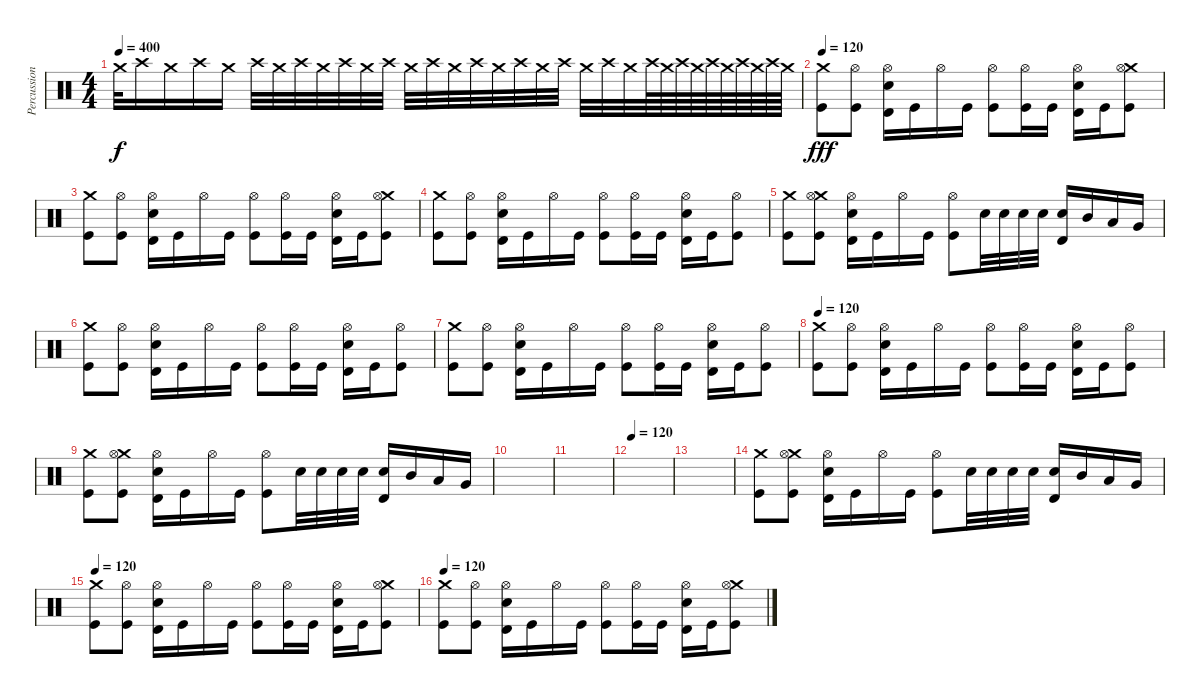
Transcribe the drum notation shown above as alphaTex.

\track ("Percussion" "Percussion") {instrument percussion}
\staff {score}
\articulation defaults
\ts (4 4)
\tempo 400
\clef neutral
\ks c "Crash medium (hit)".32{dy f volume 2} "Crash high (hit)".16{volume 15} "Crash medium (hit)".16 "Crash high (hit)".16 "Crash medium (hit)".16 "Crash high (hit)".32 "Crash medium (hit)".32 "Crash high (hit)".32 "Crash medium (hit)".32 "Crash high (hit)".32 "Crash medium (hit)".32 "Crash high (hit)".32 "Crash medium (hit)".32 "Crash high (hit)".32 "Crash medium (hit)".32 "Crash high (hit)".32 "Crash medium (hit)".32 "Crash high (hit)".32 "Crash medium (hit)".32 "Crash high (hit)".32 "Crash medium (hit)".32 "Crash high (hit)".32 "Crash medium (hit)".32 "Crash high (hit)".64 "Crash medium (hit)".64 "Crash high (hit)".64 "Crash medium (hit)".64 "Crash high (hit)".64 "Crash medium (hit)".64 "Crash high (hit)".64 "Crash medium (hit)".64 "Crash high (hit)".64 "Crash medium (hit)".64
|
\tempo 120
("Crash medium (hit)" "Kick (hit)").8{dy fff} ("Hi-Hat (open)" "Kick (hit)").8 ("Hi-Hat (open)" "Electric Snare (hit)" "Timbale high (hit)").16 "Kick (hit)".16 "Hi-Hat (open)".16 "Kick (hit)".16 ("Hi-Hat (open)" "Kick (hit)").8 ("Hi-Hat (open)" "Kick (hit)").16 "Kick (hit)".16 ("Hi-Hat (open)" "Electric Snare (hit)" "Timbale high (hit)").16 "Kick (hit)".16 ("Crash medium (hit)" "Hi-Hat (open)" "Kick (hit)").8 |
("Crash medium (hit)" "Kick (hit)").8 ("Hi-Hat (open)" "Kick (hit)").8 ("Hi-Hat (open)" "Electric Snare (hit)" "Timbale high (hit)").16 "Kick (hit)".16 "Hi-Hat (open)".16 "Kick (hit)".16 ("Hi-Hat (open)" "Kick (hit)").8 ("Hi-Hat (open)" "Kick (hit)").16 "Kick (hit)".16 ("Hi-Hat (open)" "Electric Snare (hit)" "Timbale high (hit)").16 "Kick (hit)".16 ("Crash medium (hit)" "Hi-Hat (open)" "Kick (hit)").8 |
("Crash medium (hit)" "Kick (hit)").8 ("Hi-Hat (open)" "Kick (hit)").8 ("Hi-Hat (open)" "Electric Snare (hit)" "Timbale high (hit)").16 "Kick (hit)".16 "Hi-Hat (open)".16 "Kick (hit)".16 ("Hi-Hat (open)" "Kick (hit)").8 ("Hi-Hat (open)" "Kick (hit)").16 "Kick (hit)".16 ("Hi-Hat (open)" "Electric Snare (hit)" "Timbale high (hit)").16 "Kick (hit)".16 ("Hi-Hat (open)" "Kick (hit)").8 |
("Crash medium (hit)" "Kick (hit)").8 ("Crash medium (hit)" "Hi-Hat (open)" "Kick (hit)").8 ("Hi-Hat (open)" "Electric Snare (hit)" "Timbale high (hit)").16 "Kick (hit)".16 "Hi-Hat (open)".16 "Kick (hit)".16 ("Hi-Hat (open)" "Kick (hit)").8 "Electric Snare (hit)".32 "Electric Snare (hit)".32 "Electric Snare (hit)".32 "Electric Snare (hit)".32 ("Electric Snare (hit)" "Timbale high (hit)").16 "Mid Tom (hit)".16 "Low Tom (hit)".16 "Very Low Tom (hit)".16 |
("Crash medium (hit)" "Kick (hit)").8 ("Hi-Hat (open)" "Kick (hit)").8 ("Hi-Hat (open)" "Electric Snare (hit)" "Timbale high (hit)").16 "Kick (hit)".16 "Hi-Hat (open)".16 "Kick (hit)".16 ("Hi-Hat (open)" "Kick (hit)").8 ("Hi-Hat (open)" "Kick (hit)").16 "Kick (hit)".16 ("Hi-Hat (open)" "Electric Snare (hit)" "Timbale high (hit)").16 "Kick (hit)".16 ("Hi-Hat (open)" "Kick (hit)").8 |
("Crash medium (hit)" "Kick (hit)").8 ("Hi-Hat (open)" "Kick (hit)").8 ("Hi-Hat (open)" "Electric Snare (hit)" "Timbale high (hit)").16 "Kick (hit)".16 "Hi-Hat (open)".16 "Kick (hit)".16 ("Hi-Hat (open)" "Kick (hit)").8 ("Hi-Hat (open)" "Kick (hit)").16 "Kick (hit)".16 ("Hi-Hat (open)" "Electric Snare (hit)" "Timbale high (hit)").16 "Kick (hit)".16 ("Hi-Hat (open)" "Kick (hit)").8 |
\tempo 120
("Crash medium (hit)" "Kick (hit)").8 ("Hi-Hat (open)" "Kick (hit)").8 ("Hi-Hat (open)" "Electric Snare (hit)" "Timbale high (hit)").16 "Kick (hit)".16 "Hi-Hat (open)".16 "Kick (hit)".16 ("Hi-Hat (open)" "Kick (hit)").8 ("Hi-Hat (open)" "Kick (hit)").16 "Kick (hit)".16 ("Hi-Hat (open)" "Electric Snare (hit)" "Timbale high (hit)").16 "Kick (hit)".16 ("Hi-Hat (open)" "Kick (hit)").8 |
("Crash medium (hit)" "Kick (hit)").8 ("Crash medium (hit)" "Hi-Hat (open)" "Kick (hit)").8 ("Hi-Hat (open)" "Electric Snare (hit)" "Timbale high (hit)").16 "Kick (hit)".16 "Hi-Hat (open)".16 "Kick (hit)".16 ("Hi-Hat (open)" "Kick (hit)").8 "Electric Snare (hit)".32 "Electric Snare (hit)".32 "Electric Snare (hit)".32 "Electric Snare (hit)".32 ("Electric Snare (hit)" "Timbale high (hit)").16 "Mid Tom (hit)".16 "Low Tom (hit)".16 "Very Low Tom (hit)".16 |
|
|
\tempo 120
|
|
("Crash medium (hit)" "Kick (hit)").8 ("Crash medium (hit)" "Hi-Hat (open)" "Kick (hit)").8 ("Hi-Hat (open)" "Electric Snare (hit)" "Timbale high (hit)").16 "Kick (hit)".16 "Hi-Hat (open)".16 "Kick (hit)".16 ("Hi-Hat (open)" "Kick (hit)").8 "Electric Snare (hit)".32 "Electric Snare (hit)".32 "Electric Snare (hit)".32 "Electric Snare (hit)".32 ("Electric Snare (hit)" "Timbale high (hit)").16 "Mid Tom (hit)".16 "Low Tom (hit)".16 "Very Low Tom (hit)".16 |
\tempo 120
("Crash medium (hit)" "Kick (hit)").8 ("Hi-Hat (open)" "Kick (hit)").8 ("Hi-Hat (open)" "Electric Snare (hit)" "Timbale high (hit)").16 "Kick (hit)".16 "Hi-Hat (open)".16 "Kick (hit)".16 ("Hi-Hat (open)" "Kick (hit)").8 ("Hi-Hat (open)" "Kick (hit)").16 "Kick (hit)".16 ("Hi-Hat (open)" "Electric Snare (hit)" "Timbale high (hit)").16 "Kick (hit)".16 ("Crash medium (hit)" "Hi-Hat (open)" "Kick (hit)").8 |
\tempo 120
("Crash medium (hit)" "Kick (hit)").8 ("Hi-Hat (open)" "Kick (hit)").8 ("Hi-Hat (open)" "Electric Snare (hit)" "Timbale high (hit)").16 "Kick (hit)".16 "Hi-Hat (open)".16 "Kick (hit)".16 ("Hi-Hat (open)" "Kick (hit)").8 ("Hi-Hat (open)" "Kick (hit)").16 "Kick (hit)".16 ("Hi-Hat (open)" "Electric Snare (hit)" "Timbale high (hit)").16 "Kick (hit)".16 ("Crash medium (hit)" "Hi-Hat (open)" "Kick (hit)").8
